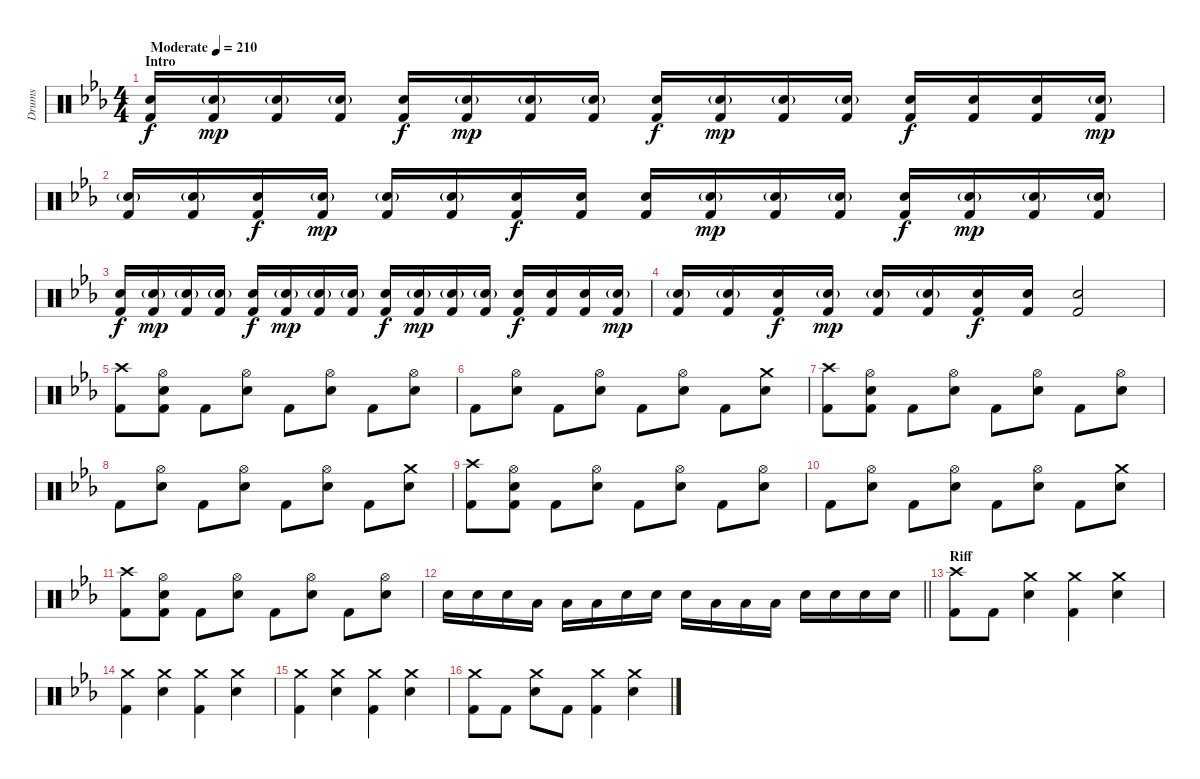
\track ("Drums" "Drums") {instrument percussion}
\staff {score}
\articulation defaults
\ts (4 4)
\section ("" "Intro")
\tempo (210 "Moderate")
\clef neutral
\ks cminor
("Electric Snare (hit)" "Kick (hit) 2").16{dy f} ("Electric Snare (hit)"{g} "Kick (hit) 2").16{dy mp} ("Electric Snare (hit)"{g} "Kick (hit) 2").16 ("Electric Snare (hit)"{g} "Kick (hit) 2").16 ("Electric Snare (hit)" "Kick (hit) 2").16{dy f} ("Electric Snare (hit)"{g} "Kick (hit) 2").16{dy mp} ("Electric Snare (hit)"{g} "Kick (hit) 2").16 ("Electric Snare (hit)"{g} "Kick (hit) 2").16 ("Electric Snare (hit)" "Kick (hit) 2").16{dy f} ("Electric Snare (hit)"{g} "Kick (hit) 2").16{dy mp} ("Electric Snare (hit)"{g} "Kick (hit) 2").16 ("Electric Snare (hit)"{g} "Kick (hit) 2").16 ("Electric Snare (hit)" "Kick (hit) 2").16{dy f} ("Electric Snare (hit)" "Kick (hit) 2").16 ("Electric Snare (hit)" "Kick (hit) 2").16 ("Electric Snare (hit)"{g} "Kick (hit) 2").16{dy mp} |
("Electric Snare (hit)"{g} "Kick (hit) 2").16 ("Electric Snare (hit)"{g} "Kick (hit) 2").16 ("Electric Snare (hit)" "Kick (hit) 2").16{dy f} ("Electric Snare (hit)"{g} "Kick (hit) 2").16{dy mp} ("Electric Snare (hit)"{g} "Kick (hit) 2").16 ("Electric Snare (hit)"{g} "Kick (hit) 2").16 ("Electric Snare (hit)" "Kick (hit) 2").16{dy f} ("Electric Snare (hit)" "Kick (hit) 2").16 ("Electric Snare (hit)" "Kick (hit) 2").16 ("Electric Snare (hit)"{g} "Kick (hit) 2").16{dy mp} ("Electric Snare (hit)"{g} "Kick (hit) 2").16 ("Electric Snare (hit)"{g} "Kick (hit) 2").16 ("Electric Snare (hit)" "Kick (hit) 2").16{dy f} ("Electric Snare (hit)"{g} "Kick (hit) 2").16{dy mp} ("Electric Snare (hit)"{g} "Kick (hit) 2").16 ("Electric Snare (hit)"{g} "Kick (hit) 2").16 |
("Electric Snare (hit)" "Kick (hit) 2").16{dy f} ("Electric Snare (hit)"{g} "Kick (hit) 2").16{dy mp} ("Electric Snare (hit)"{g} "Kick (hit) 2").16 ("Electric Snare (hit)"{g} "Kick (hit) 2").16 ("Electric Snare (hit)" "Kick (hit) 2").16{dy f} ("Electric Snare (hit)"{g} "Kick (hit) 2").16{dy mp} ("Electric Snare (hit)"{g} "Kick (hit) 2").16 ("Electric Snare (hit)"{g} "Kick (hit) 2").16 ("Electric Snare (hit)" "Kick (hit) 2").16{dy f} ("Electric Snare (hit)"{g} "Kick (hit) 2").16{dy mp} ("Electric Snare (hit)"{g} "Kick (hit) 2").16 ("Electric Snare (hit)"{g} "Kick (hit) 2").16 ("Electric Snare (hit)" "Kick (hit) 2").16{dy f} ("Electric Snare (hit)" "Kick (hit) 2").16 ("Electric Snare (hit)" "Kick (hit) 2").16 ("Electric Snare (hit)"{g} "Kick (hit) 2").16{dy mp} |
("Electric Snare (hit)"{g} "Kick (hit) 2").16 ("Electric Snare (hit)"{g} "Kick (hit) 2").16 ("Electric Snare (hit)" "Kick (hit) 2").16{dy f} ("Electric Snare (hit)"{g} "Kick (hit) 2").16{dy mp} ("Electric Snare (hit)"{g} "Kick (hit) 2").16 ("Electric Snare (hit)"{g} "Kick (hit) 2").16 ("Electric Snare (hit)" "Kick (hit) 2").16{dy f} ("Electric Snare (hit)" "Kick (hit) 2").16 ("Electric Snare (hit)" "Kick (hit) 2").2 |
("Crash high (hit)" "Kick (hit) 2").8 ("Hi-Hat (open)" "Electric Snare (hit)" "Kick (hit) 2").8 "Kick (hit) 2".8 ("Hi-Hat (open)" "Electric Snare (hit)").8 "Kick (hit) 2".8 ("Hi-Hat (open)" "Electric Snare (hit)").8 "Kick (hit) 2".8 ("Hi-Hat (open)" "Electric Snare (hit)").8 |
"Kick (hit) 2".8 ("Hi-Hat (open)" "Electric Snare (hit)").8 "Kick (hit) 2".8 ("Hi-Hat (open)" "Electric Snare (hit)").8 "Kick (hit) 2".8 ("Hi-Hat (open)" "Electric Snare (hit)").8 "Kick (hit) 2".8 ("Crash medium (hit)" "Electric Snare (hit)").8 |
("Crash high (hit)" "Kick (hit) 2").8 ("Hi-Hat (open)" "Electric Snare (hit)" "Kick (hit) 2").8 "Kick (hit) 2".8 ("Hi-Hat (open)" "Electric Snare (hit)").8 "Kick (hit) 2".8 ("Hi-Hat (open)" "Electric Snare (hit)").8 "Kick (hit) 2".8 ("Hi-Hat (open)" "Electric Snare (hit)").8 |
"Kick (hit) 2".8 ("Hi-Hat (open)" "Electric Snare (hit)").8 "Kick (hit) 2".8 ("Hi-Hat (open)" "Electric Snare (hit)").8 "Kick (hit) 2".8 ("Hi-Hat (open)" "Electric Snare (hit)").8 "Kick (hit) 2".8 ("Crash medium (hit)" "Electric Snare (hit)").8 |
("Crash high (hit)" "Kick (hit) 2").8 ("Hi-Hat (open)" "Electric Snare (hit)" "Kick (hit) 2").8 "Kick (hit) 2".8 ("Hi-Hat (open)" "Electric Snare (hit)").8 "Kick (hit) 2".8 ("Hi-Hat (open)" "Electric Snare (hit)").8 "Kick (hit) 2".8 ("Hi-Hat (open)" "Electric Snare (hit)").8 |
"Kick (hit) 2".8 ("Hi-Hat (open)" "Electric Snare (hit)").8 "Kick (hit) 2".8 ("Hi-Hat (open)" "Electric Snare (hit)").8 "Kick (hit) 2".8 ("Hi-Hat (open)" "Electric Snare (hit)").8 "Kick (hit) 2".8 ("Crash medium (hit)" "Electric Snare (hit)").8 |
("Crash high (hit)" "Kick (hit) 2").8 ("Hi-Hat (open)" "Electric Snare (hit)" "Kick (hit) 2").8 "Kick (hit) 2".8 ("Hi-Hat (open)" "Electric Snare (hit)").8 "Kick (hit) 2".8 ("Hi-Hat (open)" "Electric Snare (hit)").8 "Kick (hit) 2".8 ("Hi-Hat (open)" "Electric Snare (hit)").8 |
\barLineRight lightlight "Electric Snare (hit)".16 "Electric Snare (hit)".16 "Electric Snare (hit)".16 "Low Tom (hit)".16 "Low Tom (hit)".16 "Low Tom (hit)".16 "Electric Snare (hit)".16 "Electric Snare (hit)".16 "Electric Snare (hit)".16 "Low Tom (hit)".16 "Low Tom (hit)".16 "Low Tom (hit)".16 "Electric Snare (hit)".16 "Electric Snare (hit)".16 "Electric Snare (hit)".16 "Electric Snare (hit)".16
|
\section ("" "Riff")
("Crash high (hit)" "Kick (hit) 2").8 "Kick (hit) 2".8 ("Crash medium (hit)" "Electric Snare (hit)").4 ("Crash medium (hit)" "Kick (hit) 2").4 ("Crash medium (hit)" "Electric Snare (hit)").4 |
("Crash medium (hit)" "Kick (hit) 2").4 ("Crash medium (hit)" "Electric Snare (hit)").4 ("Crash medium (hit)" "Kick (hit) 2").4 ("Crash medium (hit)" "Electric Snare (hit)").4 |
("Crash medium (hit)" "Kick (hit) 2").4 ("Crash medium (hit)" "Electric Snare (hit)").4 ("Crash medium (hit)" "Kick (hit) 2").4 ("Crash medium (hit)" "Electric Snare (hit)").4 |
("Crash medium (hit)" "Kick (hit) 2").8 "Kick (hit) 2".8 ("Crash medium (hit)" "Electric Snare (hit)").8 "Kick (hit) 2".8 ("Crash medium (hit)" "Kick (hit) 2").4 ("Crash medium (hit)" "Electric Snare (hit)").4
